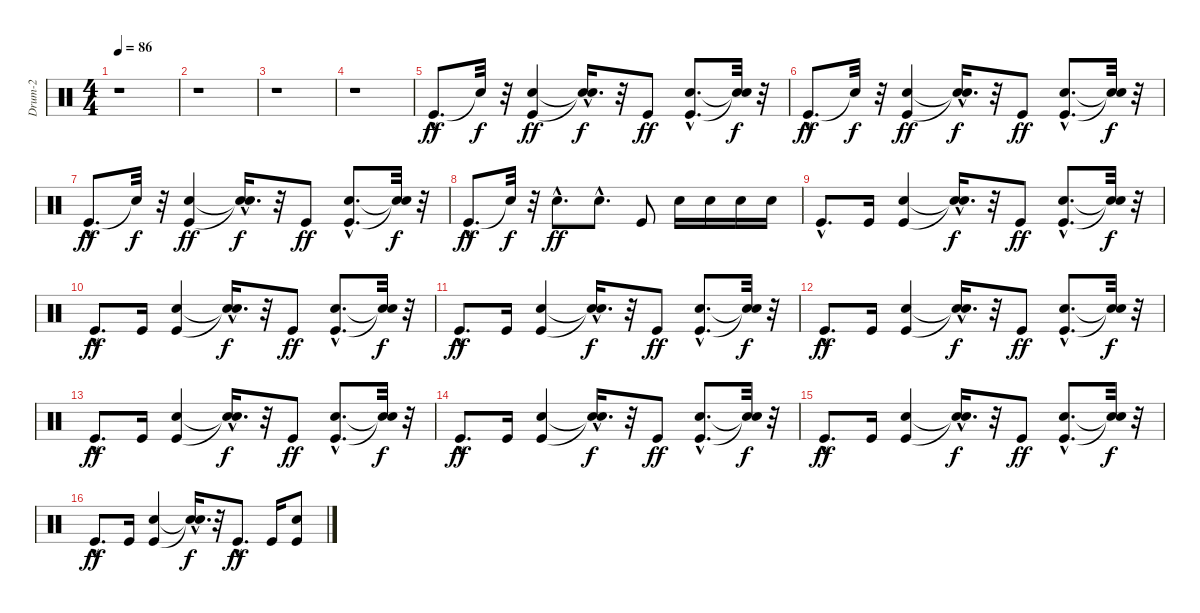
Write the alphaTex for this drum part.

\track ("Drum-2" "Drum-2") {instrument percussion}
\staff {score}
\articulation defaults
\ts (4 4)
\tempo 86
\clef neutral
\ks c
r.1{dy ff} |
r.1 |
r.1 |
r.1 |
"Kick (hit)"{hac}.8{d} "Snare (hit)"{t}.32{dy f} r.32 ("Kick (hit)" "Electric Snare (hit)").4{dy ff} ("Snare (hit)"{hac t} "Snare (hit)"{hac t}).16{d dy f} r.32 "Kick (hit)".8{dy ff} ("Kick (hit)"{hac} "Electric Snare (hit)"{hac}).8{d} ("Snare (hit)"{t} "Snare (hit)"{t}).32{dy f} r.32 |
"Kick (hit)"{hac}.8{d dy ff} "Snare (hit)"{t}.32{dy f} r.32 ("Kick (hit)" "Electric Snare (hit)").4{dy ff} ("Snare (hit)"{hac t} "Snare (hit)"{hac t}).16{d dy f} r.32 "Kick (hit)".8{dy ff} ("Kick (hit)"{hac} "Electric Snare (hit)"{hac}).8{d} ("Snare (hit)"{t} "Snare (hit)"{t}).32{dy f} r.32 |
"Kick (hit)"{hac}.8{d dy ff} "Snare (hit)"{t}.32{dy f} r.32 ("Kick (hit)" "Electric Snare (hit)").4{dy ff} ("Snare (hit)"{hac t} "Snare (hit)"{hac t}).16{d dy f} r.32 "Kick (hit)".8{dy ff} ("Kick (hit)"{hac} "Electric Snare (hit)"{hac}).8{d} ("Snare (hit)"{t} "Snare (hit)"{t}).32{dy f} r.32 |
"Kick (hit)"{hac}.8{d dy ff} "Snare (hit)"{t}.32{dy f} r.32 "Electric Snare (hit)"{hac}.8{d dy ff} "Electric Snare (hit)"{hac}.8{d} "Kick (hit)".8 "Electric Snare (hit)".16 "Electric Snare (hit)".16 "Snare (hit) 2".16 "Snare (hit) 2".16 |
"Kick (hit)"{hac}.8{d} "Kick (hit)".16 ("Kick (hit)" "Electric Snare (hit)").4 ("Snare (hit)"{hac t} "Snare (hit)"{hac t}).16{d dy f} r.32 "Kick (hit)".8{dy ff} ("Kick (hit)"{hac} "Electric Snare (hit)"{hac}).8{d} ("Snare (hit)"{t} "Snare (hit)"{t}).32{dy f} r.32 |
"Kick (hit)"{hac}.8{d dy ff} "Kick (hit)".16 ("Kick (hit)" "Electric Snare (hit)").4 ("Snare (hit)"{hac t} "Snare (hit)"{hac t}).16{d dy f} r.32 "Kick (hit)".8{dy ff} ("Kick (hit)"{hac} "Electric Snare (hit)"{hac}).8{d} ("Snare (hit)"{t} "Snare (hit)"{t}).32{dy f} r.32 |
"Kick (hit)"{hac}.8{d dy ff} "Kick (hit)".16 ("Kick (hit)" "Electric Snare (hit)").4 ("Snare (hit)"{hac t} "Snare (hit)"{hac t}).16{d dy f} r.32 "Kick (hit)".8{dy ff} ("Kick (hit)"{hac} "Electric Snare (hit)"{hac}).8{d} ("Snare (hit)"{t} "Snare (hit)"{t}).32{dy f} r.32 |
"Kick (hit)"{hac}.8{d dy ff} "Kick (hit)".16 ("Kick (hit)" "Electric Snare (hit)").4 ("Snare (hit)"{hac t} "Snare (hit)"{hac t}).16{d dy f} r.32 "Kick (hit)".8{dy ff} ("Kick (hit)"{hac} "Electric Snare (hit)"{hac}).8{d} ("Snare (hit)"{t} "Snare (hit)"{t}).32{dy f} r.32 |
"Kick (hit)"{hac}.8{d dy ff} "Kick (hit)".16 ("Kick (hit)" "Electric Snare (hit)").4 ("Snare (hit)"{hac t} "Snare (hit)"{hac t}).16{d dy f} r.32 "Kick (hit)".8{dy ff} ("Kick (hit)"{hac} "Electric Snare (hit)"{hac}).8{d} ("Snare (hit)"{t} "Snare (hit)"{t}).32{dy f} r.32 |
"Kick (hit)"{hac}.8{d dy ff} "Kick (hit)".16 ("Kick (hit)" "Electric Snare (hit)").4 ("Snare (hit)"{hac t} "Snare (hit)"{hac t}).16{d dy f} r.32 "Kick (hit)".8{dy ff} ("Kick (hit)"{hac} "Electric Snare (hit)"{hac}).8{d} ("Snare (hit)"{t} "Snare (hit)"{t}).32{dy f} r.32 |
"Kick (hit)"{hac}.8{d dy ff} "Kick (hit)".16 ("Kick (hit)" "Electric Snare (hit)").4 ("Snare (hit)"{hac t} "Snare (hit)"{hac t}).16{d dy f} r.32 "Kick (hit)".8{dy ff} ("Kick (hit)"{hac} "Electric Snare (hit)"{hac}).8{d} ("Snare (hit)"{t} "Snare (hit)"{t}).32{dy f} r.32 |
"Kick (hit)"{hac}.8{d dy ff} "Kick (hit)".16 ("Kick (hit)" "Electric Snare (hit)").4 ("Snare (hit)"{hac t} "Snare (hit)"{hac t}).16{d dy f} r.32 "Kick (hit)"{hac}.8{d dy ff} "Kick (hit)".16 ("Kick (hit)" "Electric Snare (hit)").8
